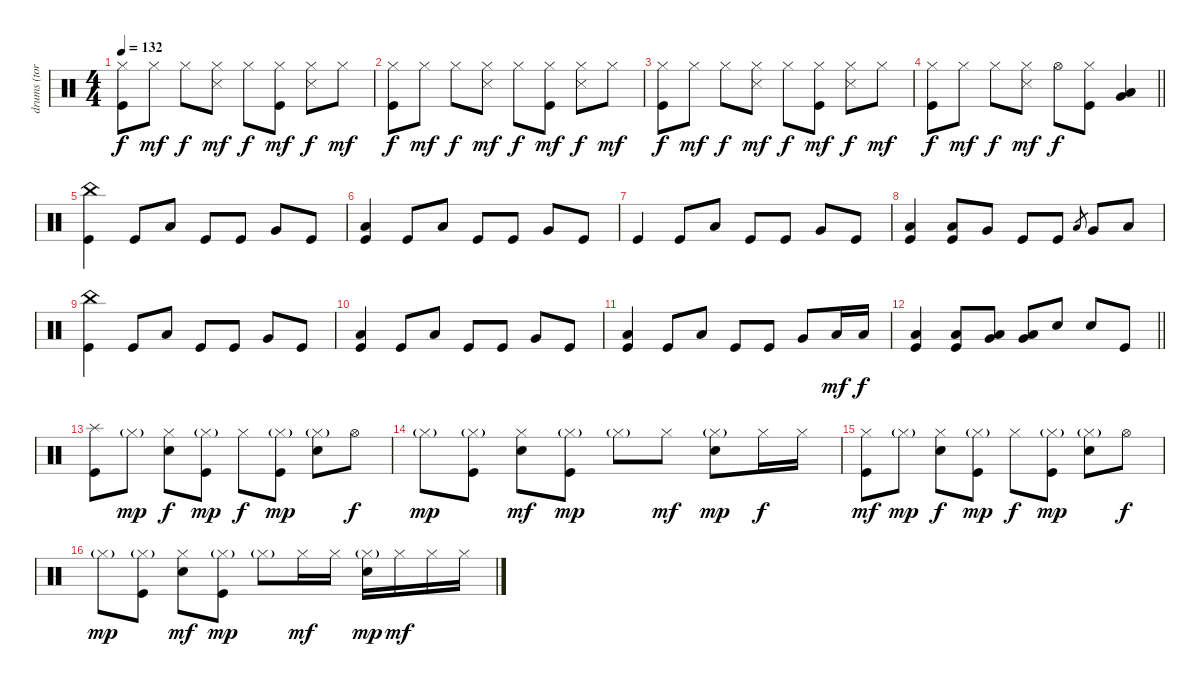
\track ("drums (tora)" "drums (tor") {instrument percussion}
\staff {score}
\articulation defaults
\ts (4 4)
\tempo 132
\clef neutral
\ks c
("Hi-Hat (closed)" "Kick (hit)").8{dy f} "Hi-Hat (closed)".8{dy mf} "Hi-Hat (closed)".8{dy f} ("Hi-Hat (closed)" "Snare (side stick) 3").8{dy mf} "Hi-Hat (closed)".8{dy f} ("Hi-Hat (closed)" "Kick (hit)").8{dy mf} ("Hi-Hat (closed)" "Snare (side stick) 3").8{dy f} "Hi-Hat (closed)".8{dy mf} |
("Hi-Hat (closed)" "Kick (hit)").8{dy f} "Hi-Hat (closed)".8{dy mf} "Hi-Hat (closed)".8{dy f} ("Hi-Hat (closed)" "Snare (side stick) 3").8{dy mf} "Hi-Hat (closed)".8{dy f} ("Hi-Hat (closed)" "Kick (hit)").8{dy mf} ("Hi-Hat (closed)" "Snare (side stick) 3").8{dy f} "Hi-Hat (closed)".8{dy mf} |
("Hi-Hat (closed)" "Kick (hit)").8{dy f} "Hi-Hat (closed)".8{dy mf} "Hi-Hat (closed)".8{dy f} ("Hi-Hat (closed)" "Snare (side stick) 3").8{dy mf} "Hi-Hat (closed)".8{dy f} ("Hi-Hat (closed)" "Kick (hit)").8{dy mf} ("Hi-Hat (closed)" "Snare (side stick) 3").8{dy f} "Hi-Hat (closed)".8{dy mf} |
\barLineRight lightlight
("Hi-Hat (closed)" "Kick (hit)").8{dy f} "Hi-Hat (closed)".8{dy mf} "Hi-Hat (closed)".8{dy f} ("Hi-Hat (closed)" "Snare (side stick) 3").8{dy mf} "Hi-Hat (open)".8{dy f} ("Hi-Hat (closed)" "Kick (hit)").8 ("Very Low Tom (hit)" "Low Floor Tom (hit)").4 |
\section ("" "")
("China (hit)" "Kick (hit)").4 "Kick (hit)".8 "Low Tom (hit)".8 "Kick (hit)".8 "Kick (hit)".8 "Very Low Tom (hit)".8 "Kick (hit)".8 |
("Low Floor Tom (hit)" "Kick (hit)").4 "Kick (hit)".8 "Low Tom (hit)".8 "Kick (hit)".8 "Kick (hit)".8 "Very Low Tom (hit)".8 "Kick (hit)".8 |
"Kick (hit)".4 "Kick (hit)".8 "Low Tom (hit)".8 "Kick (hit)".8 "Kick (hit)".8 "Very Low Tom (hit)".8 "Kick (hit)".8 |
("Low Floor Tom (hit)" "Kick (hit)").4 ("Low Floor Tom (hit)" "Kick (hit)").8 "Very Low Tom (hit)".8 "Kick (hit)".8 "Kick (hit)".8 "Low Tom (hit)".8{gr} "Very Low Tom (hit)".8 "Low Floor Tom (hit)".8 |
("China (hit)" "Kick (hit)").4 "Kick (hit)".8 "Low Tom (hit)".8 "Kick (hit)".8 "Kick (hit)".8 "Very Low Tom (hit)".8 "Kick (hit)".8 |
("Low Floor Tom (hit)" "Kick (hit)").4 "Kick (hit)".8 "Low Tom (hit)".8 "Kick (hit)".8 "Kick (hit)".8 "Very Low Tom (hit)".8 "Kick (hit)".8 |
("Low Floor Tom (hit)" "Kick (hit)").4 "Kick (hit)".8 "Low Tom (hit)".8 "Kick (hit)".8 "Kick (hit)".8 "Very Low Tom (hit)".8 "Low Floor Tom (hit)".16{dy mf} "Low Floor Tom (hit)".16{dy f} |
\barLineRight lightlight
("Low Floor Tom (hit)" "Kick (hit)").4 ("Low Floor Tom (hit)" "Kick (hit)").8 ("Very Low Tom (hit)" "Low Floor Tom (hit)").8 ("Very Low Tom (hit)" "Low Floor Tom (hit)").8 "Snare (hit) 2".8 "Snare (hit) 2".8 "Kick (hit)".8 |
\section ("" "")
("Splash (hit)" "Kick (hit)").8 "Hi-Hat (closed)"{g}.8{dy mp} ("Hi-Hat (closed)" "Snare (hit) 2").8{dy f} ("Hi-Hat (closed)"{g} "Kick (hit)").8{dy mp} "Hi-Hat (closed)".8{dy f} ("Hi-Hat (closed)"{g} "Kick (hit)").8{dy mp} ("Hi-Hat (closed)"{g} "Snare (hit) 2").8 "Hi-Hat (open)".8{dy f} |
"Hi-Hat (closed)"{g}.8{dy mp} ("Hi-Hat (closed)"{g} "Kick (hit)").8 ("Hi-Hat (closed)" "Snare (hit) 2").8{dy mf} ("Hi-Hat (closed)"{g} "Kick (hit)").8{dy mp} "Hi-Hat (closed)"{g}.8 "Hi-Hat (closed)".8{dy mf} ("Hi-Hat (closed)"{g} "Snare (hit) 2").8{dy mp} "Hi-Hat (closed)".16{dy f} "Hi-Hat (closed)".16 |
("Hi-Hat (closed)" "Kick (hit)").8{dy mf} "Hi-Hat (closed)"{g}.8{dy mp} ("Hi-Hat (closed)" "Snare (hit) 2").8{dy f} ("Hi-Hat (closed)"{g} "Kick (hit)").8{dy mp} "Hi-Hat (closed)".8{dy f} ("Hi-Hat (closed)"{g} "Kick (hit)").8{dy mp} ("Hi-Hat (closed)"{g} "Snare (hit) 2").8 "Hi-Hat (open)".8{dy f} |
"Hi-Hat (closed)"{g}.8{dy mp} ("Hi-Hat (closed)"{g} "Kick (hit)").8 ("Hi-Hat (closed)" "Snare (hit) 2").8{dy mf} ("Hi-Hat (closed)"{g} "Kick (hit)").8{dy mp} "Hi-Hat (closed)"{g}.8 "Hi-Hat (closed)".16{dy mf} "Hi-Hat (closed)".16 ("Hi-Hat (closed)"{g} "Snare (hit) 2").16{dy mp} "Hi-Hat (closed)".16{dy mf} "Hi-Hat (closed)".16 "Hi-Hat (closed)".16
